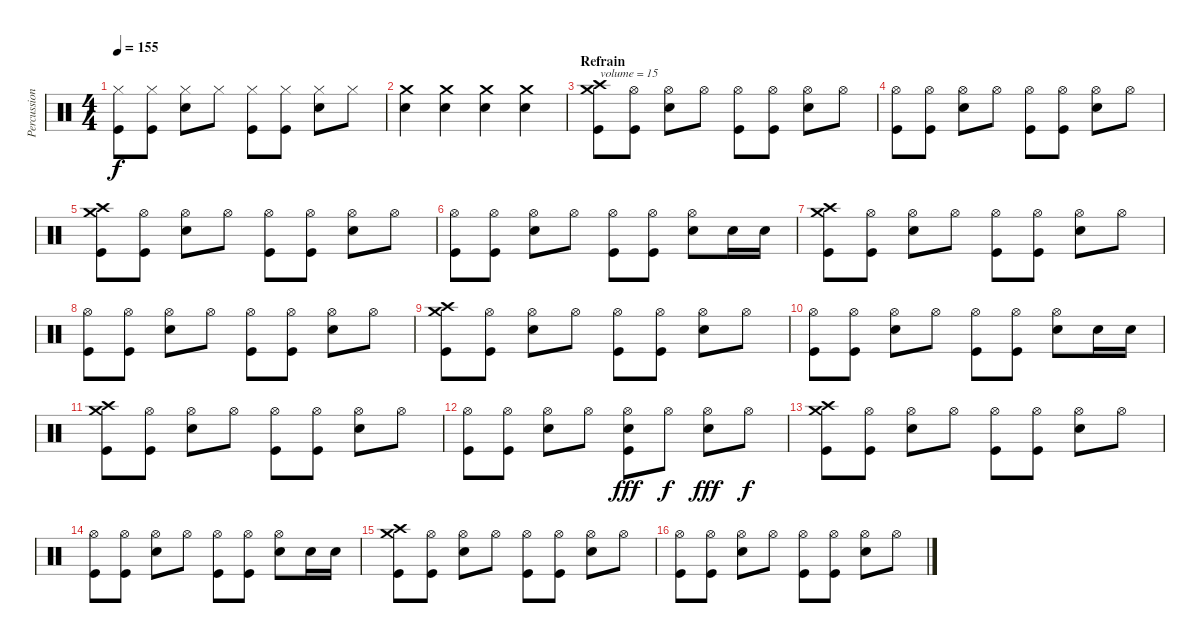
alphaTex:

\track ("Percussions" "Percussion") {instrument percussion}
\staff {score}
\articulation defaults
\ts (4 4)
\tempo 155
\clef neutral
\ks c
("Hi-Hat (closed)" "Kick (hit)").8{dy f} ("Hi-Hat (closed)" "Kick (hit)").8 ("Hi-Hat (closed)" "Snare (hit) 2").8 "Hi-Hat (closed)".8 ("Hi-Hat (closed)" "Kick (hit)").8 ("Hi-Hat (closed)" "Kick (hit)").8 ("Hi-Hat (closed)" "Snare (hit) 2").8 "Hi-Hat (closed)".8 |
("Crash medium (hit)" "Snare (hit) 2").4 ("Crash medium (hit)" "Snare (hit) 2").4 ("Crash medium (hit)" "Snare (hit) 2").4 ("Crash medium (hit)" "Snare (hit) 2").4 |
\section ("" "Refrain")
("Crash high (hit)" "Crash medium (hit)" "Kick (hit)").8{txt "volume = 15" volume 15} ("Hi-Hat (open)" "Kick (hit)").8 ("Hi-Hat (open)" "Snare (hit) 2").8 "Hi-Hat (open)".8 ("Hi-Hat (open)" "Kick (hit)").8 ("Hi-Hat (open)" "Kick (hit)").8 ("Hi-Hat (open)" "Snare (hit) 2").8 "Hi-Hat (open)".8 |
("Hi-Hat (open)" "Kick (hit)").8 ("Hi-Hat (open)" "Kick (hit)").8 ("Hi-Hat (open)" "Snare (hit) 2").8 "Hi-Hat (open)".8 ("Hi-Hat (open)" "Kick (hit)").8 ("Hi-Hat (open)" "Kick (hit)").8 ("Hi-Hat (open)" "Snare (hit) 2").8 "Hi-Hat (open)".8 |
("Crash high (hit)" "Crash medium (hit)" "Kick (hit)").8 ("Hi-Hat (open)" "Kick (hit)").8 ("Hi-Hat (open)" "Snare (hit) 2").8 "Hi-Hat (open)".8 ("Hi-Hat (open)" "Kick (hit)").8 ("Hi-Hat (open)" "Kick (hit)").8 ("Hi-Hat (open)" "Snare (hit) 2").8 "Hi-Hat (open)".8 |
("Hi-Hat (open)" "Kick (hit)").8 ("Hi-Hat (open)" "Kick (hit)").8 ("Hi-Hat (open)" "Snare (hit) 2").8 "Hi-Hat (open)".8 ("Hi-Hat (open)" "Kick (hit)").8 ("Hi-Hat (open)" "Kick (hit)").8 ("Hi-Hat (open)" "Snare (hit) 2").8 "Electric Snare (hit)".16 "Electric Snare (hit)".16 |
("Crash high (hit)" "Crash medium (hit)" "Kick (hit)").8 ("Hi-Hat (open)" "Kick (hit)").8 ("Hi-Hat (open)" "Snare (hit) 2").8 "Hi-Hat (open)".8 ("Hi-Hat (open)" "Kick (hit)").8 ("Hi-Hat (open)" "Kick (hit)").8 ("Hi-Hat (open)" "Snare (hit) 2").8 "Hi-Hat (open)".8 |
("Hi-Hat (open)" "Kick (hit)").8 ("Hi-Hat (open)" "Kick (hit)").8 ("Hi-Hat (open)" "Snare (hit) 2").8 "Hi-Hat (open)".8 ("Hi-Hat (open)" "Kick (hit)").8 ("Hi-Hat (open)" "Kick (hit)").8 ("Hi-Hat (open)" "Snare (hit) 2").8 "Hi-Hat (open)".8 |
("Crash high (hit)" "Crash medium (hit)" "Kick (hit)").8 ("Hi-Hat (open)" "Kick (hit)").8 ("Hi-Hat (open)" "Snare (hit) 2").8 "Hi-Hat (open)".8 ("Hi-Hat (open)" "Kick (hit)").8 ("Hi-Hat (open)" "Kick (hit)").8 ("Hi-Hat (open)" "Snare (hit) 2").8 "Hi-Hat (open)".8 |
("Hi-Hat (open)" "Kick (hit)").8 ("Hi-Hat (open)" "Kick (hit)").8 ("Hi-Hat (open)" "Snare (hit) 2").8 "Hi-Hat (open)".8 ("Hi-Hat (open)" "Kick (hit)").8 ("Hi-Hat (open)" "Kick (hit)").8 ("Hi-Hat (open)" "Snare (hit) 2").8 "Electric Snare (hit)".16 "Electric Snare (hit)".16 |
("Crash high (hit)" "Crash medium (hit)" "Kick (hit)").8 ("Hi-Hat (open)" "Kick (hit)").8 ("Hi-Hat (open)" "Snare (hit) 2").8 "Hi-Hat (open)".8 ("Hi-Hat (open)" "Kick (hit)").8 ("Hi-Hat (open)" "Kick (hit)").8 ("Hi-Hat (open)" "Snare (hit) 2").8 "Hi-Hat (open)".8 |
("Hi-Hat (open)" "Kick (hit)").8 ("Hi-Hat (open)" "Kick (hit)").8 ("Hi-Hat (open)" "Snare (hit) 2").8 "Hi-Hat (open)".8 ("Hi-Hat (open)" "Snare (hit) 2" "Kick (hit)").8{dy fff} "Hi-Hat (open)".8{dy f} ("Hi-Hat (open)" "Snare (hit) 2").8{dy fff} "Hi-Hat (open)".8{dy f} |
("Crash high (hit)" "Crash medium (hit)" "Kick (hit)").8 ("Hi-Hat (open)" "Kick (hit)").8 ("Hi-Hat (open)" "Snare (hit) 2").8 "Hi-Hat (open)".8 ("Hi-Hat (open)" "Kick (hit)").8 ("Hi-Hat (open)" "Kick (hit)").8 ("Hi-Hat (open)" "Snare (hit) 2").8 "Hi-Hat (open)".8 |
("Hi-Hat (open)" "Kick (hit)").8 ("Hi-Hat (open)" "Kick (hit)").8 ("Hi-Hat (open)" "Snare (hit) 2").8 "Hi-Hat (open)".8 ("Hi-Hat (open)" "Kick (hit)").8 ("Hi-Hat (open)" "Kick (hit)").8 ("Hi-Hat (open)" "Snare (hit) 2").8 "Electric Snare (hit)".16 "Electric Snare (hit)".16 |
("Crash high (hit)" "Crash medium (hit)" "Kick (hit)").8 ("Hi-Hat (open)" "Kick (hit)").8 ("Hi-Hat (open)" "Snare (hit) 2").8 "Hi-Hat (open)".8 ("Hi-Hat (open)" "Kick (hit)").8 ("Hi-Hat (open)" "Kick (hit)").8 ("Hi-Hat (open)" "Snare (hit) 2").8 "Hi-Hat (open)".8 |
("Hi-Hat (open)" "Kick (hit)").8 ("Hi-Hat (open)" "Kick (hit)").8 ("Hi-Hat (open)" "Snare (hit) 2").8 "Hi-Hat (open)".8 ("Hi-Hat (open)" "Kick (hit)").8 ("Hi-Hat (open)" "Kick (hit)").8 ("Hi-Hat (open)" "Snare (hit) 2").8 "Hi-Hat (open)".8
